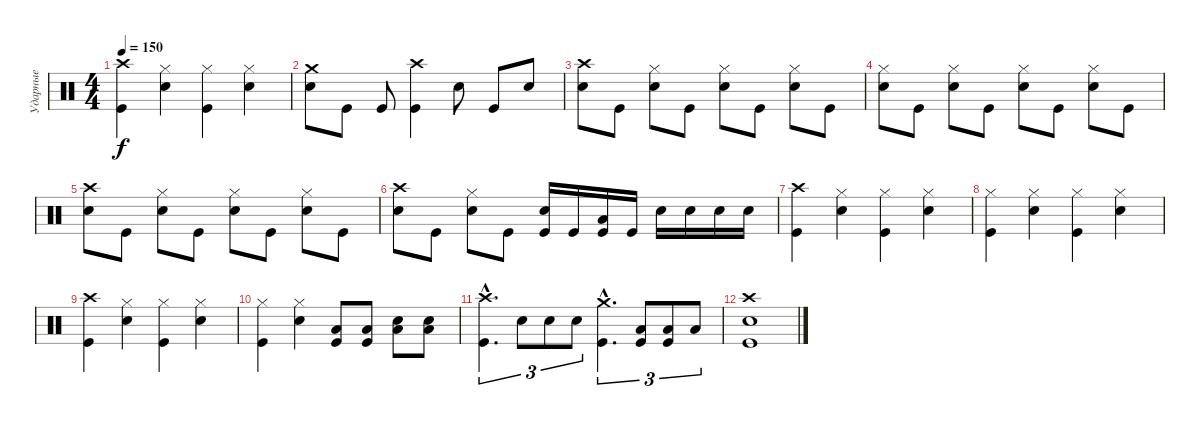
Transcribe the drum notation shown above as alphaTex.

\track ("Ударные" "Ударные") {instrument percussion}
\staff {score}
\articulation defaults
\ts (4 4)
\tempo 150
\clef neutral
\ks c
("Crash high (hit)" "Kick (hit)").4{dy f} ("Hi-Hat (closed)" "Electric Snare (hit)").4 ("Hi-Hat (closed)" "Kick (hit)").4 ("Hi-Hat (closed)" "Electric Snare (hit)").4 |
("Crash medium (hit)" "Electric Snare (hit)").8 "Kick (hit)".8 "Kick (hit)".8 ("Crash high (hit)" "Kick (hit)").4 "Electric Snare (hit)".8 "Kick (hit)".8 "Electric Snare (hit)".8 |
("Crash high (hit)" "Electric Snare (hit)").8 "Kick (hit)".8 ("Hi-Hat (closed)" "Electric Snare (hit)").8 "Kick (hit)".8 ("Hi-Hat (closed)" "Electric Snare (hit)").8 "Kick (hit)".8 ("Hi-Hat (closed)" "Electric Snare (hit)").8 "Kick (hit)".8 |
("Hi-Hat (closed)" "Electric Snare (hit)").8 "Kick (hit)".8 ("Hi-Hat (closed)" "Electric Snare (hit)").8 "Kick (hit)".8 ("Hi-Hat (closed)" "Electric Snare (hit)").8 "Kick (hit)".8 ("Hi-Hat (closed)" "Electric Snare (hit)").8 "Kick (hit)".8 |
("Crash high (hit)" "Electric Snare (hit)").8 "Kick (hit)".8 ("Hi-Hat (closed)" "Electric Snare (hit)").8 "Kick (hit)".8 ("Hi-Hat (closed)" "Electric Snare (hit)").8 "Kick (hit)".8 ("Hi-Hat (closed)" "Electric Snare (hit)").8 "Kick (hit)".8 |
("Crash high (hit)" "Electric Snare (hit)").8 "Kick (hit)".8 ("Hi-Hat (closed)" "Electric Snare (hit)").8 "Kick (hit)".8 ("Electric Snare (hit)" "Kick (hit)").16 "Kick (hit)".16 ("Low Tom (hit)" "Kick (hit)").16 "Kick (hit)".16 "Electric Snare (hit)".16 "Electric Snare (hit)".16 "Electric Snare (hit)".16 "Electric Snare (hit)".16 |
("Crash high (hit)" "Kick (hit)").4 ("Hi-Hat (closed)" "Electric Snare (hit)").4 ("Hi-Hat (closed)" "Kick (hit)").4 ("Hi-Hat (closed)" "Electric Snare (hit)").4 |
("Hi-Hat (closed)" "Kick (hit)").4 ("Hi-Hat (closed)" "Electric Snare (hit)").4 ("Hi-Hat (closed)" "Kick (hit)").4 ("Hi-Hat (closed)" "Electric Snare (hit)").4 |
("Crash high (hit)" "Kick (hit)").4 ("Hi-Hat (closed)" "Electric Snare (hit)").4 ("Hi-Hat (closed)" "Kick (hit)").4 ("Hi-Hat (closed)" "Electric Snare (hit)").4 |
("Hi-Hat (closed)" "Kick (hit)").4 ("Hi-Hat (closed)" "Electric Snare (hit)").4 ("Low Tom (hit)" "Kick (hit)").8 ("Low Tom (hit)" "Kick (hit)").8 ("Low Tom (hit)" "Electric Snare (hit)").8 ("Low Tom (hit)" "Electric Snare (hit)").8 |
("Crash high (hit)"{hac} "Kick (hit)"{hac}).4{d tu (3 2)} "Electric Snare (hit)".8{tu (3 2)} "Electric Snare (hit)".8{tu (3 2)} "Electric Snare (hit)".8{tu (3 2)} ("Crash medium (hit)"{hac} "Kick (hit)"{hac}).4{d tu (3 2)} ("Low Tom (hit)" "Kick (hit)").8{tu (3 2)} ("Low Tom (hit)" "Kick (hit)").8{tu (3 2)} "Low Tom (hit)".8{tu (3 2)} |
("Crash high (hit)" "Electric Snare (hit)" "Kick (hit)").1
